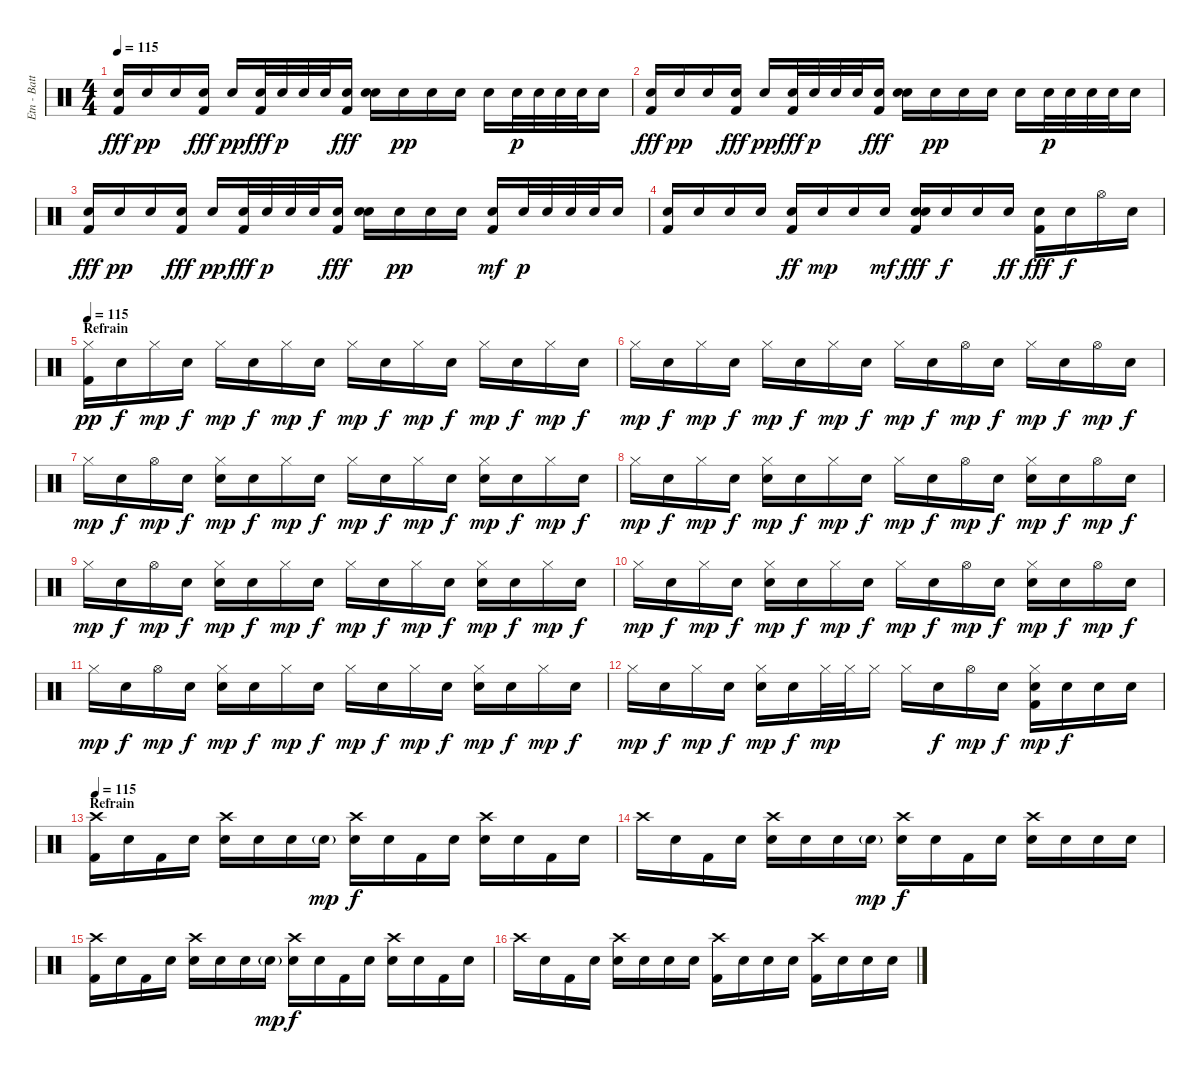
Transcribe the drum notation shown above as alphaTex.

\track ("Etn - Batterie" "Etn - Batt") {instrument percussion}
\staff {score}
\articulation defaults
\ts (4 4)
\tempo 115
\clef neutral
\ks c
("Electric Snare (hit)" "Kick (hit) 2").16{dy fff} "Electric Snare (hit)".16{dy pp} "Electric Snare (hit)".16 ("Electric Snare (hit)" "Kick (hit) 2").16{dy fff} "Electric Snare (hit)".16{dy pp} ("Electric Snare (hit)" "Kick (hit) 2").32{dy fff} "Electric Snare (hit)".32{dy p} "Electric Snare (hit)".32 "Electric Snare (hit)".32 ("Electric Snare (hit)" "Kick (hit) 2").16{dy fff} ("Electric Snare (hit)" "Electric Snare (hit)").16 "Electric Snare (hit)".16{dy pp} "Electric Snare (hit)".16 "Electric Snare (hit)".16 "Electric Snare (hit)".16 "Electric Snare (hit)".32{dy p} "Electric Snare (hit)".32 "Electric Snare (hit)".32 "Electric Snare (hit)".32 "Electric Snare (hit)".16 |
("Electric Snare (hit)" "Kick (hit) 2").16{dy fff} "Electric Snare (hit)".16{dy pp} "Electric Snare (hit)".16 ("Electric Snare (hit)" "Kick (hit) 2").16{dy fff} "Electric Snare (hit)".16{dy pp} ("Electric Snare (hit)" "Kick (hit) 2").32{dy fff} "Electric Snare (hit)".32{dy p} "Electric Snare (hit)".32 "Electric Snare (hit)".32 ("Electric Snare (hit)" "Kick (hit) 2").16{dy fff} ("Electric Snare (hit)" "Electric Snare (hit)").16 "Electric Snare (hit)".16{dy pp} "Electric Snare (hit)".16 "Electric Snare (hit)".16 "Electric Snare (hit)".16 "Electric Snare (hit)".32{dy p} "Electric Snare (hit)".32 "Electric Snare (hit)".32 "Electric Snare (hit)".32 "Electric Snare (hit)".16 |
("Electric Snare (hit)" "Kick (hit) 2").16{dy fff} "Electric Snare (hit)".16{dy pp} "Electric Snare (hit)".16 ("Electric Snare (hit)" "Kick (hit) 2").16{dy fff} "Electric Snare (hit)".16{dy pp} ("Electric Snare (hit)" "Kick (hit) 2").32{dy fff} "Electric Snare (hit)".32{dy p} "Electric Snare (hit)".32 "Electric Snare (hit)".32 ("Electric Snare (hit)" "Kick (hit) 2").16{dy fff} ("Electric Snare (hit)" "Electric Snare (hit)").16 "Electric Snare (hit)".16{dy pp} "Electric Snare (hit)".16 "Electric Snare (hit)".16 ("Electric Snare (hit)" "Kick (hit) 2").16{dy mf} "Electric Snare (hit)".32{dy p} "Electric Snare (hit)".32 "Electric Snare (hit)".32 "Electric Snare (hit)".32 "Electric Snare (hit)".16 |
("Electric Snare (hit)" "Kick (hit) 2").16 "Electric Snare (hit)".16 "Electric Snare (hit)".16 "Electric Snare (hit)".16 ("Electric Snare (hit)" "Kick (hit) 2").16{dy ff} "Electric Snare (hit)".16{dy mp} "Electric Snare (hit)".16 "Electric Snare (hit)".16{dy mf} ("Electric Snare (hit)" "Electric Snare (hit)" "Kick (hit) 2").16{dy fff} "Electric Snare (hit)".16{dy f} "Electric Snare (hit)".16 "Electric Snare (hit)".16{dy ff} ("Electric Snare (hit)" "Kick (hit) 2").16{dy fff} "Snare (hit)".16{dy f} "Hi-Hat (open)".16 "Snare (hit)".16 |
\section ("" "Refrain")
\tempo 115
("Hi-Hat (closed)" "Kick (hit) 2").16{dy pp volume 16 balance 8} "Snare (hit)".16{dy f} "Hi-Hat (closed)".16{dy mp} "Snare (hit)".16{dy f} "Hi-Hat (closed)".16{dy mp} "Snare (hit)".16{dy f} "Hi-Hat (closed)".16{dy mp} "Snare (hit)".16{dy f} "Hi-Hat (closed)".16{dy mp} "Snare (hit)".16{dy f} "Hi-Hat (closed)".16{dy mp} "Snare (hit)".16{dy f} "Hi-Hat (closed)".16{dy mp} "Snare (hit)".16{dy f} "Hi-Hat (closed)".16{dy mp} "Snare (hit)".16{dy f} |
"Hi-Hat (closed)".16{dy mp} "Snare (hit)".16{dy f} "Hi-Hat (closed)".16{dy mp} "Snare (hit)".16{dy f} "Hi-Hat (closed)".16{dy mp} "Snare (hit)".16{dy f} "Hi-Hat (closed)".16{dy mp} "Snare (hit)".16{dy f} "Hi-Hat (closed)".16{dy mp} "Snare (hit)".16{dy f} "Hi-Hat (open)".16{dy mp} "Snare (hit)".16{dy f} "Hi-Hat (closed)".16{dy mp} "Snare (hit)".16{dy f} "Hi-Hat (open)".16{dy mp} "Snare (hit)".16{dy f} |
"Hi-Hat (closed)".16{dy mp} "Snare (hit)".16{dy f} "Hi-Hat (open)".16{dy mp} "Snare (hit)".16{dy f} ("Hi-Hat (closed)" "Electric Snare (hit)").16{dy mp} "Snare (hit)".16{dy f} "Hi-Hat (closed)".16{dy mp} "Snare (hit)".16{dy f} "Hi-Hat (closed)".16{dy mp} "Snare (hit)".16{dy f} "Hi-Hat (closed)".16{dy mp} "Snare (hit)".16{dy f} ("Hi-Hat (closed)" "Electric Snare (hit)").16{dy mp} "Snare (hit)".16{dy f} "Hi-Hat (closed)".16{dy mp} "Snare (hit)".16{dy f} |
"Hi-Hat (closed)".16{dy mp} "Snare (hit)".16{dy f} "Hi-Hat (closed)".16{dy mp} "Snare (hit)".16{dy f} ("Hi-Hat (closed)" "Electric Snare (hit)").16{dy mp} "Snare (hit)".16{dy f} "Hi-Hat (closed)".16{dy mp} "Snare (hit)".16{dy f} "Hi-Hat (closed)".16{dy mp} "Snare (hit)".16{dy f} "Hi-Hat (open)".16{dy mp} "Snare (hit)".16{dy f} ("Hi-Hat (closed)" "Electric Snare (hit)").16{dy mp} "Snare (hit)".16{dy f} "Hi-Hat (open)".16{dy mp} "Snare (hit)".16{dy f} |
"Hi-Hat (closed)".16{dy mp} "Snare (hit)".16{dy f} "Hi-Hat (open)".16{dy mp} "Snare (hit)".16{dy f} ("Hi-Hat (closed)" "Electric Snare (hit)").16{dy mp} "Snare (hit)".16{dy f} "Hi-Hat (closed)".16{dy mp} "Snare (hit)".16{dy f} "Hi-Hat (closed)".16{dy mp} "Snare (hit)".16{dy f} "Hi-Hat (closed)".16{dy mp} "Snare (hit)".16{dy f} ("Hi-Hat (closed)" "Electric Snare (hit)").16{dy mp} "Snare (hit)".16{dy f} "Hi-Hat (closed)".16{dy mp} "Snare (hit)".16{dy f} |
"Hi-Hat (closed)".16{dy mp} "Snare (hit)".16{dy f} "Hi-Hat (closed)".16{dy mp} "Snare (hit)".16{dy f} ("Hi-Hat (closed)" "Electric Snare (hit)").16{dy mp} "Snare (hit)".16{dy f} "Hi-Hat (closed)".16{dy mp} "Snare (hit)".16{dy f} "Hi-Hat (closed)".16{dy mp} "Snare (hit)".16{dy f} "Hi-Hat (open)".16{dy mp} "Snare (hit)".16{dy f} ("Hi-Hat (closed)" "Electric Snare (hit)").16{dy mp} "Snare (hit)".16{dy f} "Hi-Hat (open)".16{dy mp} "Snare (hit)".16{dy f} |
"Hi-Hat (closed)".16{dy mp} "Snare (hit)".16{dy f} "Hi-Hat (open)".16{dy mp} "Snare (hit)".16{dy f} ("Hi-Hat (closed)" "Electric Snare (hit)").16{dy mp} "Snare (hit)".16{dy f} "Hi-Hat (closed)".16{dy mp} "Snare (hit)".16{dy f} "Hi-Hat (closed)".16{dy mp} "Snare (hit)".16{dy f} "Hi-Hat (closed)".16{dy mp} "Snare (hit)".16{dy f} ("Hi-Hat (closed)" "Electric Snare (hit)").16{dy mp} "Snare (hit)".16{dy f} "Hi-Hat (closed)".16{dy mp} "Snare (hit)".16{dy f} |
"Hi-Hat (closed)".16{dy mp} "Snare (hit)".16{dy f} "Hi-Hat (closed)".16{dy mp} "Snare (hit)".16{dy f} ("Hi-Hat (closed)" "Electric Snare (hit)").16{dy mp} "Snare (hit)".16{dy f} "Hi-Hat (closed)".32{dy mp} "Hi-Hat (closed)".32 "Hi-Hat (closed)".16 "Hi-Hat (closed)".16 "Snare (hit)".16{dy f} "Hi-Hat (open)".16{dy mp} "Snare (hit)".16{dy f} ("Hi-Hat (closed)" "Electric Snare (hit)" "Kick (hit) 2").16{dy mp} "Snare (hit)".16{dy f} "Snare (hit)".16 "Snare (hit)".16 |
\section ("" "Refrain")
\tempo 115
("Crash high (hit)" "Kick (hit) 2").16{volume 16 balance 8} "Snare (hit)".16 "Kick (hit) 2".16 "Snare (hit)".16 ("Crash high (hit)" "Electric Snare (hit)").16 "Snare (hit)".16 "Snare (hit)".16 "Electric Snare (hit)"{g}.16{dy mp} ("Crash high (hit)" "Electric Snare (hit)").16{dy f} "Snare (hit)".16 "Kick (hit) 2".16 "Snare (hit)".16 ("Crash high (hit)" "Electric Snare (hit)").16 "Snare (hit)".16 "Kick (hit) 2".16 "Snare (hit)".16 |
"Crash high (hit)".16 "Snare (hit)".16 "Kick (hit) 2".16 "Snare (hit)".16 ("Crash high (hit)" "Electric Snare (hit)").16 "Snare (hit)".16 "Snare (hit)".16 "Electric Snare (hit)"{g}.16{dy mp} ("Crash high (hit)" "Electric Snare (hit)").16{dy f} "Snare (hit)".16 "Kick (hit) 2".16 "Snare (hit)".16 ("Crash high (hit)" "Electric Snare (hit)").16 "Snare (hit)".16 "Electric Snare (hit)".16 "Electric Snare (hit)".16 |
("Crash high (hit)" "Kick (hit) 2").16 "Snare (hit)".16 "Kick (hit) 2".16 "Snare (hit)".16 ("Crash high (hit)" "Electric Snare (hit)").16 "Snare (hit)".16 "Snare (hit)".16 "Electric Snare (hit)"{g}.16{dy mp} ("Crash high (hit)" "Electric Snare (hit)").16{dy f} "Snare (hit)".16 "Kick (hit) 2".16 "Snare (hit)".16 ("Crash high (hit)" "Electric Snare (hit)").16 "Snare (hit)".16 "Kick (hit) 2".16 "Snare (hit)".16 |
"Crash high (hit)".16 "Snare (hit)".16 "Kick (hit) 2".16 "Snare (hit)".16 ("Crash high (hit)" "Electric Snare (hit)").16 "Snare (hit)".16 "Snare (hit)".16 "Snare (hit)".16 ("Crash high (hit)" "Kick (hit) 2").16 "Snare (hit)".16 "Electric Snare (hit)".16 "Snare (hit)".16 ("Crash high (hit)" "Kick (hit) 2").16 "Snare (hit)".16 "Electric Snare (hit)".16 "Snare (hit)".16
